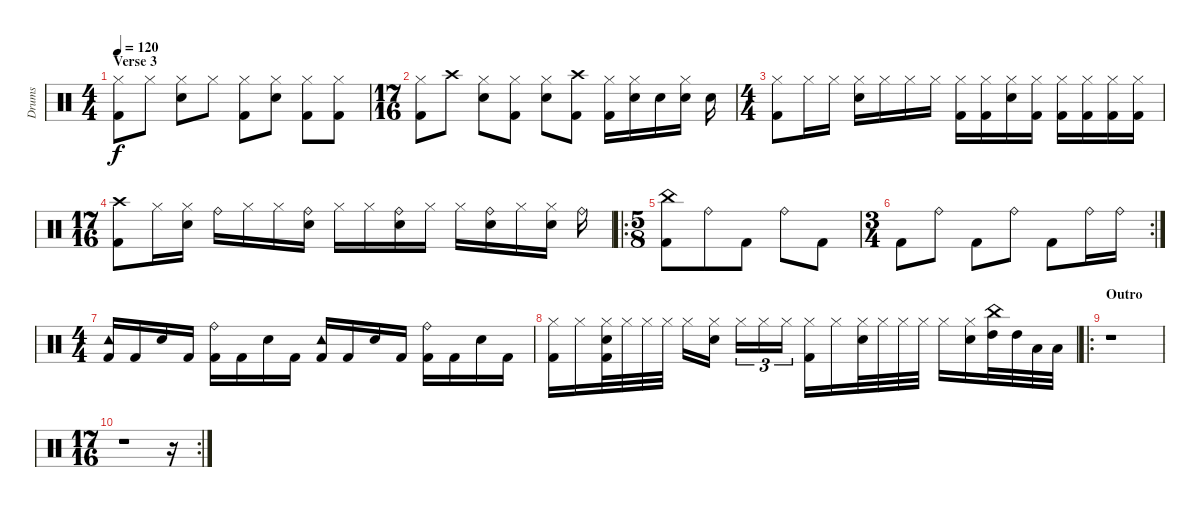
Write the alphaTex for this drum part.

\track ("Drums" "Drums") {instrument percussion}
\staff {score}
\articulation defaults
\ts (4 4)
\section ("" "Verse 3")
\tempo 120
\clef neutral
\ks c
("Hi-Hat (closed)" "Kick (hit) 2").8{dy f} "Hi-Hat (closed)".8 ("Hi-Hat (closed)" "Electric Snare (hit)").8 "Hi-Hat (closed)".8 ("Hi-Hat (closed)" "Kick (hit) 2").8 ("Hi-Hat (closed)" "Electric Snare (hit)").8 ("Hi-Hat (closed)" "Kick (hit) 2").8 ("Hi-Hat (closed)" "Kick (hit) 2").8 |
\ts (17 16)
("Hi-Hat (closed)" "Kick (hit) 2").8 "Crash high (hit)".8 ("Hi-Hat (closed)" "Electric Snare (hit)").8 ("Hi-Hat (closed)" "Kick (hit) 2").8 ("Hi-Hat (closed)" "Electric Snare (hit)").8 ("Crash high (hit)" "Kick (hit) 2").8 ("Hi-Hat (closed)" "Kick (hit) 2").16 ("Hi-Hat (closed)" "Electric Snare (hit)").16 "Electric Snare (hit)".16 ("Hi-Hat (closed)" "Electric Snare (hit)").16 "Electric Snare (hit)".16 |
\ts (4 4)
("Hi-Hat (closed)" "Kick (hit) 2").8 "Hi-Hat (closed)".16 "Hi-Hat (closed)".16 ("Hi-Hat (closed)" "Electric Snare (hit)").16 "Hi-Hat (closed)".16 "Hi-Hat (closed)".16 "Hi-Hat (closed)".16 ("Hi-Hat (closed)" "Kick (hit) 2").16 ("Hi-Hat (closed)" "Kick (hit) 2").16 ("Hi-Hat (closed)" "Electric Snare (hit)").16 ("Hi-Hat (closed)" "Kick (hit) 2").16 ("Hi-Hat (closed)" "Kick (hit) 2").16 ("Hi-Hat (closed)" "Kick (hit) 2").16 ("Hi-Hat (closed)" "Kick (hit) 2").16 ("Hi-Hat (closed)" "Kick (hit) 2").16 |
\ts (17 16)
("Crash high (hit)" "Kick (hit) 2").8 "Hi-Hat (closed)".16 ("Hi-Hat (closed)" "Electric Snare (hit)").16 "Ride (bell)".16 "Hi-Hat (closed)".16 "Hi-Hat (closed)".16 ("Ride (bell)" "Electric Snare (hit)").16 "Hi-Hat (closed)".16 "Hi-Hat (closed)".16 ("Ride (bell)" "Electric Snare (hit)").16 "Hi-Hat (closed)".16 "Hi-Hat (closed)".16 ("Ride (bell)" "Electric Snare (hit)").16 "Hi-Hat (closed)".16 ("Hi-Hat (closed)" "Electric Snare (hit)").16 "Ride (bell)".16 |
\ro
\ts (5 8)
("China (hit)" "Kick (hit) 2").8 "Ride (bell)".8 "Kick (hit) 2".8 "Ride (bell)".8 "Kick (hit) 2".8 |
\rc 2
\ts (3 4)
"Kick (hit) 2".8 "Ride (bell)".8 "Kick (hit) 2".8 "Ride (bell)".8 "Kick (hit) 2".8 "Ride (bell)".16 "Ride (bell)".16 |
\ts (4 4)
("Tambourine (hit)" "Kick (hit) 2").16 "Kick (hit) 2".16 "Electric Snare (hit)".16 "Kick (hit) 2".16 ("Ride (bell)" "Kick (hit) 2").16 "Kick (hit) 2".16 "Electric Snare (hit)".16 "Kick (hit) 2".16 ("Tambourine (hit)" "Kick (hit) 2").16 "Kick (hit) 2".16 "Electric Snare (hit)".16 "Kick (hit) 2".16 ("Ride (bell)" "Kick (hit) 2").16 "Kick (hit) 2".16 "Electric Snare (hit)".16 "Kick (hit) 2".16 |
("Hi-Hat (closed)" "Kick (hit) 2").16 "Hi-Hat (closed)".16 ("Hi-Hat (closed)" "Electric Snare (hit)" "Kick (hit) 2").32 "Hi-Hat (closed)".32 "Hi-Hat (closed)".32 "Hi-Hat (closed)".32 "Hi-Hat (closed)".16 ("Hi-Hat (closed)" "Electric Snare (hit)").16 "Hi-Hat (closed)".16{tu (3 2)} "Hi-Hat (closed)".16{tu (3 2)} "Hi-Hat (closed)".16{tu (3 2)} ("Hi-Hat (closed)" "Kick (hit) 2").16 "Hi-Hat (closed)".16 ("Hi-Hat (closed)" "Electric Snare (hit)").32 "Hi-Hat (closed)".32 "Hi-Hat (closed)".32 "Hi-Hat (closed)".32 "Hi-Hat (closed)".16 ("Hi-Hat (closed)" "Electric Snare (hit)").16 ("China (hit)" "High Tom (hit)").32 "High Tom (hit)".32 "Low Tom (hit)".32 "Low Tom (hit)".32 |
\ro
\section ("" "Outro")
r.1 |
\rc 2
\ts (17 16)
r.1 r.16
